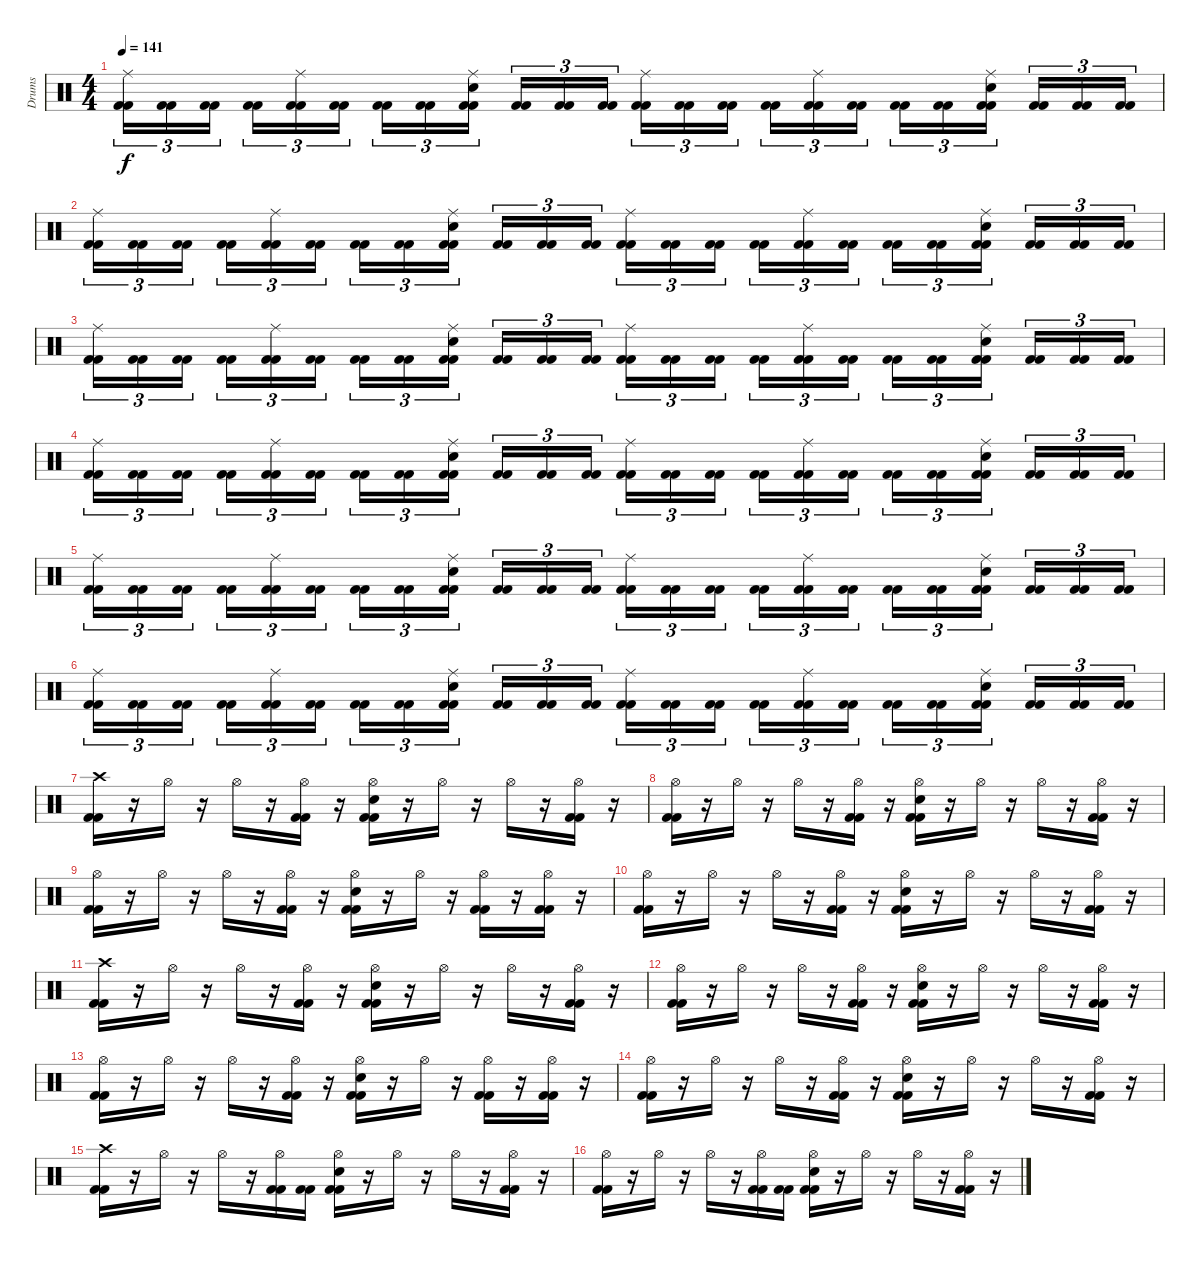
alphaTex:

\track ("Drums" "Drums") {instrument percussion}
\staff {score}
\articulation defaults
\ts (4 4)
\tempo 141
\clef neutral
\ks c
("Ride (middle)" "Kick (hit) 2" "Kick (hit) 2").16{tu (3 2) dy f} ("Kick (hit) 2" "Kick (hit) 2").16{tu (3 2)} ("Kick (hit) 2" "Kick (hit) 2").16{tu (3 2)} ("Kick (hit) 2" "Kick (hit) 2").16{tu (3 2)} ("Ride (middle)" "Kick (hit) 2" "Kick (hit) 2").16{tu (3 2)} ("Kick (hit) 2" "Kick (hit) 2").16{tu (3 2)} ("Kick (hit) 2" "Kick (hit) 2").16{tu (3 2)} ("Kick (hit) 2" "Kick (hit) 2").16{tu (3 2)} ("Ride (middle)" "Snare (hit) 2" "Kick (hit) 2" "Kick (hit) 2").16{tu (3 2)} ("Kick (hit) 2" "Kick (hit) 2").16{tu (3 2)} ("Kick (hit) 2" "Kick (hit) 2").16{tu (3 2)} ("Kick (hit) 2" "Kick (hit) 2").16{tu (3 2)} ("Ride (middle)" "Kick (hit) 2" "Kick (hit) 2").16{tu (3 2)} ("Kick (hit) 2" "Kick (hit) 2").16{tu (3 2)} ("Kick (hit) 2" "Kick (hit) 2").16{tu (3 2)} ("Kick (hit) 2" "Kick (hit) 2").16{tu (3 2)} ("Ride (middle)" "Kick (hit) 2" "Kick (hit) 2").16{tu (3 2)} ("Kick (hit) 2" "Kick (hit) 2").16{tu (3 2)} ("Kick (hit) 2" "Kick (hit) 2").16{tu (3 2)} ("Kick (hit) 2" "Kick (hit) 2").16{tu (3 2)} ("Ride (middle)" "Snare (hit) 2" "Kick (hit) 2" "Kick (hit) 2").16{tu (3 2)} ("Kick (hit) 2" "Kick (hit) 2").16{tu (3 2)} ("Kick (hit) 2" "Kick (hit) 2").16{tu (3 2)} ("Kick (hit) 2" "Kick (hit) 2").16{tu (3 2)} |
("Ride (middle)" "Kick (hit) 2" "Kick (hit) 2").16{tu (3 2)} ("Kick (hit) 2" "Kick (hit) 2").16{tu (3 2)} ("Kick (hit) 2" "Kick (hit) 2").16{tu (3 2)} ("Kick (hit) 2" "Kick (hit) 2").16{tu (3 2)} ("Ride (middle)" "Kick (hit) 2" "Kick (hit) 2").16{tu (3 2)} ("Kick (hit) 2" "Kick (hit) 2").16{tu (3 2)} ("Kick (hit) 2" "Kick (hit) 2").16{tu (3 2)} ("Kick (hit) 2" "Kick (hit) 2").16{tu (3 2)} ("Ride (middle)" "Snare (hit) 2" "Kick (hit) 2" "Kick (hit) 2").16{tu (3 2)} ("Kick (hit) 2" "Kick (hit) 2").16{tu (3 2)} ("Kick (hit) 2" "Kick (hit) 2").16{tu (3 2)} ("Kick (hit) 2" "Kick (hit) 2").16{tu (3 2)} ("Ride (middle)" "Kick (hit) 2" "Kick (hit) 2").16{tu (3 2)} ("Kick (hit) 2" "Kick (hit) 2").16{tu (3 2)} ("Kick (hit) 2" "Kick (hit) 2").16{tu (3 2)} ("Kick (hit) 2" "Kick (hit) 2").16{tu (3 2)} ("Ride (middle)" "Kick (hit) 2" "Kick (hit) 2").16{tu (3 2)} ("Kick (hit) 2" "Kick (hit) 2").16{tu (3 2)} ("Kick (hit) 2" "Kick (hit) 2").16{tu (3 2)} ("Kick (hit) 2" "Kick (hit) 2").16{tu (3 2)} ("Ride (middle)" "Snare (hit) 2" "Kick (hit) 2" "Kick (hit) 2").16{tu (3 2)} ("Kick (hit) 2" "Kick (hit) 2").16{tu (3 2)} ("Kick (hit) 2" "Kick (hit) 2").16{tu (3 2)} ("Kick (hit) 2" "Kick (hit) 2").16{tu (3 2)} |
("Ride (middle)" "Kick (hit) 2" "Kick (hit) 2").16{tu (3 2)} ("Kick (hit) 2" "Kick (hit) 2").16{tu (3 2)} ("Kick (hit) 2" "Kick (hit) 2").16{tu (3 2)} ("Kick (hit) 2" "Kick (hit) 2").16{tu (3 2)} ("Ride (middle)" "Kick (hit) 2" "Kick (hit) 2").16{tu (3 2)} ("Kick (hit) 2" "Kick (hit) 2").16{tu (3 2)} ("Kick (hit) 2" "Kick (hit) 2").16{tu (3 2)} ("Kick (hit) 2" "Kick (hit) 2").16{tu (3 2)} ("Ride (middle)" "Snare (hit) 2" "Kick (hit) 2" "Kick (hit) 2").16{tu (3 2)} ("Kick (hit) 2" "Kick (hit) 2").16{tu (3 2)} ("Kick (hit) 2" "Kick (hit) 2").16{tu (3 2)} ("Kick (hit) 2" "Kick (hit) 2").16{tu (3 2)} ("Ride (middle)" "Kick (hit) 2" "Kick (hit) 2").16{tu (3 2)} ("Kick (hit) 2" "Kick (hit) 2").16{tu (3 2)} ("Kick (hit) 2" "Kick (hit) 2").16{tu (3 2)} ("Kick (hit) 2" "Kick (hit) 2").16{tu (3 2)} ("Ride (middle)" "Kick (hit) 2" "Kick (hit) 2").16{tu (3 2)} ("Kick (hit) 2" "Kick (hit) 2").16{tu (3 2)} ("Kick (hit) 2" "Kick (hit) 2").16{tu (3 2)} ("Kick (hit) 2" "Kick (hit) 2").16{tu (3 2)} ("Ride (middle)" "Snare (hit) 2" "Kick (hit) 2" "Kick (hit) 2").16{tu (3 2)} ("Kick (hit) 2" "Kick (hit) 2").16{tu (3 2)} ("Kick (hit) 2" "Kick (hit) 2").16{tu (3 2)} ("Kick (hit) 2" "Kick (hit) 2").16{tu (3 2)} |
("Ride (middle)" "Kick (hit) 2" "Kick (hit) 2").16{tu (3 2)} ("Kick (hit) 2" "Kick (hit) 2").16{tu (3 2)} ("Kick (hit) 2" "Kick (hit) 2").16{tu (3 2)} ("Kick (hit) 2" "Kick (hit) 2").16{tu (3 2)} ("Ride (middle)" "Kick (hit) 2" "Kick (hit) 2").16{tu (3 2)} ("Kick (hit) 2" "Kick (hit) 2").16{tu (3 2)} ("Kick (hit) 2" "Kick (hit) 2").16{tu (3 2)} ("Kick (hit) 2" "Kick (hit) 2").16{tu (3 2)} ("Ride (middle)" "Snare (hit) 2" "Kick (hit) 2" "Kick (hit) 2").16{tu (3 2)} ("Kick (hit) 2" "Kick (hit) 2").16{tu (3 2)} ("Kick (hit) 2" "Kick (hit) 2").16{tu (3 2)} ("Kick (hit) 2" "Kick (hit) 2").16{tu (3 2)} ("Ride (middle)" "Kick (hit) 2" "Kick (hit) 2").16{tu (3 2)} ("Kick (hit) 2" "Kick (hit) 2").16{tu (3 2)} ("Kick (hit) 2" "Kick (hit) 2").16{tu (3 2)} ("Kick (hit) 2" "Kick (hit) 2").16{tu (3 2)} ("Ride (middle)" "Kick (hit) 2" "Kick (hit) 2").16{tu (3 2)} ("Kick (hit) 2" "Kick (hit) 2").16{tu (3 2)} ("Kick (hit) 2" "Kick (hit) 2").16{tu (3 2)} ("Kick (hit) 2" "Kick (hit) 2").16{tu (3 2)} ("Ride (middle)" "Snare (hit) 2" "Kick (hit) 2" "Kick (hit) 2").16{tu (3 2)} ("Kick (hit) 2" "Kick (hit) 2").16{tu (3 2)} ("Kick (hit) 2" "Kick (hit) 2").16{tu (3 2)} ("Kick (hit) 2" "Kick (hit) 2").16{tu (3 2)} |
("Ride (middle)" "Kick (hit) 2" "Kick (hit) 2").16{tu (3 2)} ("Kick (hit) 2" "Kick (hit) 2").16{tu (3 2)} ("Kick (hit) 2" "Kick (hit) 2").16{tu (3 2)} ("Kick (hit) 2" "Kick (hit) 2").16{tu (3 2)} ("Ride (middle)" "Kick (hit) 2" "Kick (hit) 2").16{tu (3 2)} ("Kick (hit) 2" "Kick (hit) 2").16{tu (3 2)} ("Kick (hit) 2" "Kick (hit) 2").16{tu (3 2)} ("Kick (hit) 2" "Kick (hit) 2").16{tu (3 2)} ("Ride (middle)" "Snare (hit) 2" "Kick (hit) 2" "Kick (hit) 2").16{tu (3 2)} ("Kick (hit) 2" "Kick (hit) 2").16{tu (3 2)} ("Kick (hit) 2" "Kick (hit) 2").16{tu (3 2)} ("Kick (hit) 2" "Kick (hit) 2").16{tu (3 2)} ("Ride (middle)" "Kick (hit) 2" "Kick (hit) 2").16{tu (3 2)} ("Kick (hit) 2" "Kick (hit) 2").16{tu (3 2)} ("Kick (hit) 2" "Kick (hit) 2").16{tu (3 2)} ("Kick (hit) 2" "Kick (hit) 2").16{tu (3 2)} ("Ride (middle)" "Kick (hit) 2" "Kick (hit) 2").16{tu (3 2)} ("Kick (hit) 2" "Kick (hit) 2").16{tu (3 2)} ("Kick (hit) 2" "Kick (hit) 2").16{tu (3 2)} ("Kick (hit) 2" "Kick (hit) 2").16{tu (3 2)} ("Ride (middle)" "Snare (hit) 2" "Kick (hit) 2" "Kick (hit) 2").16{tu (3 2)} ("Kick (hit) 2" "Kick (hit) 2").16{tu (3 2)} ("Kick (hit) 2" "Kick (hit) 2").16{tu (3 2)} ("Kick (hit) 2" "Kick (hit) 2").16{tu (3 2)} |
("Ride (middle)" "Kick (hit) 2" "Kick (hit) 2").16{tu (3 2)} ("Kick (hit) 2" "Kick (hit) 2").16{tu (3 2)} ("Kick (hit) 2" "Kick (hit) 2").16{tu (3 2)} ("Kick (hit) 2" "Kick (hit) 2").16{tu (3 2)} ("Ride (middle)" "Kick (hit) 2" "Kick (hit) 2").16{tu (3 2)} ("Kick (hit) 2" "Kick (hit) 2").16{tu (3 2)} ("Kick (hit) 2" "Kick (hit) 2").16{tu (3 2)} ("Kick (hit) 2" "Kick (hit) 2").16{tu (3 2)} ("Ride (middle)" "Snare (hit) 2" "Kick (hit) 2" "Kick (hit) 2").16{tu (3 2)} ("Kick (hit) 2" "Kick (hit) 2").16{tu (3 2)} ("Kick (hit) 2" "Kick (hit) 2").16{tu (3 2)} ("Kick (hit) 2" "Kick (hit) 2").16{tu (3 2)} ("Ride (middle)" "Kick (hit) 2" "Kick (hit) 2").16{tu (3 2)} ("Kick (hit) 2" "Kick (hit) 2").16{tu (3 2)} ("Kick (hit) 2" "Kick (hit) 2").16{tu (3 2)} ("Kick (hit) 2" "Kick (hit) 2").16{tu (3 2)} ("Ride (middle)" "Kick (hit) 2" "Kick (hit) 2").16{tu (3 2)} ("Kick (hit) 2" "Kick (hit) 2").16{tu (3 2)} ("Kick (hit) 2" "Kick (hit) 2").16{tu (3 2)} ("Kick (hit) 2" "Kick (hit) 2").16{tu (3 2)} ("Ride (middle)" "Snare (hit) 2" "Kick (hit) 2" "Kick (hit) 2").16{tu (3 2)} ("Kick (hit) 2" "Kick (hit) 2").16{tu (3 2)} ("Kick (hit) 2" "Kick (hit) 2").16{tu (3 2)} ("Kick (hit) 2" "Kick (hit) 2").16{tu (3 2)} |
("Crash high (hit)" "Kick (hit) 2" "Kick (hit) 2").16 r.16 "Hi-Hat (open)".16 r.16 "Hi-Hat (open)".16 r.16 ("Hi-Hat (open)" "Kick (hit) 2" "Kick (hit) 2").16 r.16 ("Hi-Hat (open)" "Snare (hit) 2" "Kick (hit) 2" "Kick (hit) 2").16 r.16 "Hi-Hat (open)".16 r.16 "Hi-Hat (open)".16 r.16 ("Hi-Hat (open)" "Kick (hit) 2" "Kick (hit) 2").16 r.16 |
("Hi-Hat (open)" "Kick (hit) 2" "Kick (hit) 2").16 r.16 "Hi-Hat (open)".16 r.16 "Hi-Hat (open)".16 r.16 ("Hi-Hat (open)" "Kick (hit) 2" "Kick (hit) 2").16 r.16 ("Hi-Hat (open)" "Snare (hit) 2" "Kick (hit) 2" "Kick (hit) 2").16 r.16 "Hi-Hat (open)".16 r.16 "Hi-Hat (open)".16 r.16 ("Hi-Hat (open)" "Kick (hit) 2" "Kick (hit) 2").16 r.16 |
("Hi-Hat (open)" "Kick (hit) 2" "Kick (hit) 2").16 r.16 "Hi-Hat (open)".16 r.16 "Hi-Hat (open)".16 r.16 ("Hi-Hat (open)" "Kick (hit) 2" "Kick (hit) 2").16 r.16 ("Hi-Hat (open)" "Snare (hit) 2" "Kick (hit) 2" "Kick (hit) 2").16 r.16 "Hi-Hat (open)".16 r.16 ("Hi-Hat (open)" "Kick (hit) 2" "Kick (hit) 2").16 r.16 ("Hi-Hat (open)" "Kick (hit) 2" "Kick (hit) 2").16 r.16 |
("Hi-Hat (open)" "Kick (hit) 2" "Kick (hit) 2").16 r.16 "Hi-Hat (open)".16 r.16 "Hi-Hat (open)".16 r.16 ("Hi-Hat (open)" "Kick (hit) 2" "Kick (hit) 2").16 r.16 ("Hi-Hat (open)" "Snare (hit) 2" "Kick (hit) 2" "Kick (hit) 2").16 r.16 "Hi-Hat (open)".16 r.16 "Hi-Hat (open)".16 r.16 ("Hi-Hat (open)" "Kick (hit) 2" "Kick (hit) 2").16 r.16 |
("Crash high (hit)" "Kick (hit) 2" "Kick (hit) 2").16 r.16 "Hi-Hat (open)".16 r.16 "Hi-Hat (open)".16 r.16 ("Hi-Hat (open)" "Kick (hit) 2" "Kick (hit) 2").16 r.16 ("Hi-Hat (open)" "Snare (hit) 2" "Kick (hit) 2" "Kick (hit) 2").16 r.16 "Hi-Hat (open)".16 r.16 "Hi-Hat (open)".16 r.16 ("Hi-Hat (open)" "Kick (hit) 2" "Kick (hit) 2").16 r.16 |
("Hi-Hat (open)" "Kick (hit) 2" "Kick (hit) 2").16 r.16 "Hi-Hat (open)".16 r.16 "Hi-Hat (open)".16 r.16 ("Hi-Hat (open)" "Kick (hit) 2" "Kick (hit) 2").16 r.16 ("Hi-Hat (open)" "Snare (hit) 2" "Kick (hit) 2" "Kick (hit) 2").16 r.16 "Hi-Hat (open)".16 r.16 "Hi-Hat (open)".16 r.16 ("Hi-Hat (open)" "Kick (hit) 2" "Kick (hit) 2").16 r.16 |
("Hi-Hat (open)" "Kick (hit) 2" "Kick (hit) 2").16 r.16 "Hi-Hat (open)".16 r.16 "Hi-Hat (open)".16 r.16 ("Hi-Hat (open)" "Kick (hit) 2" "Kick (hit) 2").16 r.16 ("Hi-Hat (open)" "Snare (hit) 2" "Kick (hit) 2" "Kick (hit) 2").16 r.16 "Hi-Hat (open)".16 r.16 ("Hi-Hat (open)" "Kick (hit) 2" "Kick (hit) 2").16 r.16 ("Hi-Hat (open)" "Kick (hit) 2" "Kick (hit) 2").16 r.16 |
("Hi-Hat (open)" "Kick (hit) 2" "Kick (hit) 2").16 r.16 "Hi-Hat (open)".16 r.16 "Hi-Hat (open)".16 r.16 ("Hi-Hat (open)" "Kick (hit) 2" "Kick (hit) 2").16 r.16 ("Hi-Hat (open)" "Snare (hit) 2" "Kick (hit) 2" "Kick (hit) 2").16 r.16 "Hi-Hat (open)".16 r.16 "Hi-Hat (open)".16 r.16 ("Hi-Hat (open)" "Kick (hit) 2" "Kick (hit) 2").16 r.16 |
("Crash high (hit)" "Kick (hit) 2" "Kick (hit) 2").16 r.16 "Hi-Hat (open)".16 r.16 "Hi-Hat (open)".16 r.16 ("Hi-Hat (open)" "Kick (hit) 2" "Kick (hit) 2").16 ("Kick (hit) 2" "Kick (hit) 2").16 ("Hi-Hat (open)" "Snare (hit) 2" "Kick (hit) 2" "Kick (hit) 2").16 r.16 "Hi-Hat (open)".16 r.16 "Hi-Hat (open)".16 r.16 ("Hi-Hat (open)" "Kick (hit) 2" "Kick (hit) 2").16 r.16 |
("Hi-Hat (open)" "Kick (hit) 2" "Kick (hit) 2").16 r.16 "Hi-Hat (open)".16 r.16 "Hi-Hat (open)".16 r.16 ("Hi-Hat (open)" "Kick (hit) 2" "Kick (hit) 2").16 ("Kick (hit) 2" "Kick (hit) 2").16 ("Hi-Hat (open)" "Snare (hit) 2" "Kick (hit) 2" "Kick (hit) 2").16 r.16 "Hi-Hat (open)".16 r.16 "Hi-Hat (open)".16 r.16 ("Hi-Hat (open)" "Kick (hit) 2" "Kick (hit) 2").16 r.16
